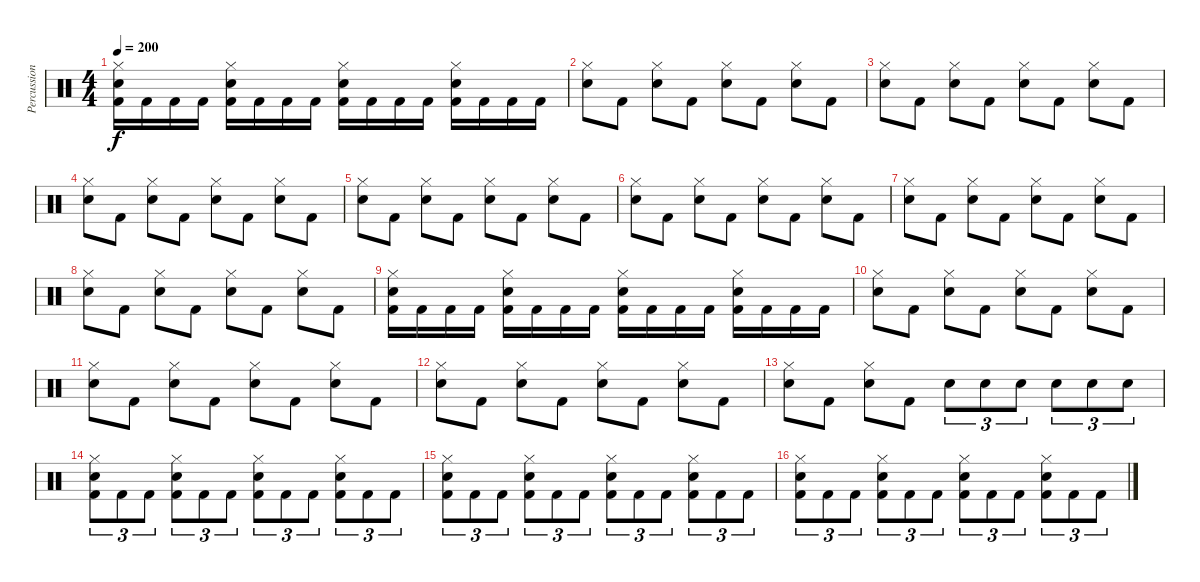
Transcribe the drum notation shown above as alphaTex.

\track ("Percussion" "Percussion") {instrument percussion}
\staff {score}
\articulation defaults
\ts (4 4)
\tempo 200
\clef neutral
\ks c
("Hi-Hat (closed)" "Snare (hit) 2" "Kick (hit) 2").16{dy f} "Kick (hit) 2".16 "Kick (hit) 2".16 "Kick (hit) 2".16 ("Hi-Hat (closed)" "Snare (hit) 2" "Kick (hit) 2").16 "Kick (hit) 2".16 "Kick (hit) 2".16 "Kick (hit) 2".16 ("Hi-Hat (closed)" "Snare (hit) 2" "Kick (hit) 2").16 "Kick (hit) 2".16 "Kick (hit) 2".16 "Kick (hit) 2".16 ("Hi-Hat (closed)" "Snare (hit) 2" "Kick (hit) 2").16 "Kick (hit) 2".16 "Kick (hit) 2".16 "Kick (hit) 2".16 |
("Hi-Hat (closed)" "Snare (hit) 2").8 "Kick (hit) 2".8 ("Hi-Hat (closed)" "Snare (hit) 2").8 "Kick (hit) 2".8 ("Hi-Hat (closed)" "Snare (hit) 2").8 "Kick (hit) 2".8 ("Hi-Hat (closed)" "Snare (hit) 2").8 "Kick (hit) 2".8 |
("Hi-Hat (closed)" "Snare (hit) 2").8 "Kick (hit) 2".8 ("Hi-Hat (closed)" "Snare (hit) 2").8 "Kick (hit) 2".8 ("Hi-Hat (closed)" "Snare (hit) 2").8 "Kick (hit) 2".8 ("Hi-Hat (closed)" "Snare (hit) 2").8 "Kick (hit) 2".8 |
("Hi-Hat (closed)" "Snare (hit) 2").8 "Kick (hit) 2".8 ("Hi-Hat (closed)" "Snare (hit) 2").8 "Kick (hit) 2".8 ("Hi-Hat (closed)" "Snare (hit) 2").8 "Kick (hit) 2".8 ("Hi-Hat (closed)" "Snare (hit) 2").8 "Kick (hit) 2".8 |
("Hi-Hat (closed)" "Snare (hit) 2").8 "Kick (hit) 2".8 ("Hi-Hat (closed)" "Snare (hit) 2").8 "Kick (hit) 2".8 ("Hi-Hat (closed)" "Snare (hit) 2").8 "Kick (hit) 2".8 ("Hi-Hat (closed)" "Snare (hit) 2").8 "Kick (hit) 2".8 |
("Hi-Hat (closed)" "Snare (hit) 2").8 "Kick (hit) 2".8 ("Hi-Hat (closed)" "Snare (hit) 2").8 "Kick (hit) 2".8 ("Hi-Hat (closed)" "Snare (hit) 2").8 "Kick (hit) 2".8 ("Hi-Hat (closed)" "Snare (hit) 2").8 "Kick (hit) 2".8 |
("Hi-Hat (closed)" "Snare (hit) 2").8 "Kick (hit) 2".8 ("Hi-Hat (closed)" "Snare (hit) 2").8 "Kick (hit) 2".8 ("Hi-Hat (closed)" "Snare (hit) 2").8 "Kick (hit) 2".8 ("Hi-Hat (closed)" "Snare (hit) 2").8 "Kick (hit) 2".8 |
("Hi-Hat (closed)" "Snare (hit) 2").8 "Kick (hit) 2".8 ("Hi-Hat (closed)" "Snare (hit) 2").8 "Kick (hit) 2".8 ("Hi-Hat (closed)" "Snare (hit) 2").8 "Kick (hit) 2".8 ("Hi-Hat (closed)" "Snare (hit) 2").8 "Kick (hit) 2".8 |
("Hi-Hat (closed)" "Snare (hit) 2" "Kick (hit) 2").16 "Kick (hit) 2".16 "Kick (hit) 2".16 "Kick (hit) 2".16 ("Hi-Hat (closed)" "Snare (hit) 2" "Kick (hit) 2").16 "Kick (hit) 2".16 "Kick (hit) 2".16 "Kick (hit) 2".16 ("Hi-Hat (closed)" "Snare (hit) 2" "Kick (hit) 2").16 "Kick (hit) 2".16 "Kick (hit) 2".16 "Kick (hit) 2".16 ("Hi-Hat (closed)" "Snare (hit) 2" "Kick (hit) 2").16 "Kick (hit) 2".16 "Kick (hit) 2".16 "Kick (hit) 2".16 |
("Hi-Hat (closed)" "Snare (hit) 2").8 "Kick (hit) 2".8 ("Hi-Hat (closed)" "Snare (hit) 2").8 "Kick (hit) 2".8 ("Hi-Hat (closed)" "Snare (hit) 2").8 "Kick (hit) 2".8 ("Hi-Hat (closed)" "Snare (hit) 2").8 "Kick (hit) 2".8 |
("Hi-Hat (closed)" "Snare (hit) 2").8 "Kick (hit) 2".8 ("Hi-Hat (closed)" "Snare (hit) 2").8 "Kick (hit) 2".8 ("Hi-Hat (closed)" "Snare (hit) 2").8 "Kick (hit) 2".8 ("Hi-Hat (closed)" "Snare (hit) 2").8 "Kick (hit) 2".8 |
("Hi-Hat (closed)" "Snare (hit) 2").8 "Kick (hit) 2".8 ("Hi-Hat (closed)" "Snare (hit) 2").8 "Kick (hit) 2".8 ("Hi-Hat (closed)" "Snare (hit) 2").8 "Kick (hit) 2".8 ("Hi-Hat (closed)" "Snare (hit) 2").8 "Kick (hit) 2".8 |
("Hi-Hat (closed)" "Snare (hit) 2").8 "Kick (hit) 2".8 ("Hi-Hat (closed)" "Snare (hit) 2").8 "Kick (hit) 2".8 "Snare (hit) 2".8{tu (3 2)} "Snare (hit) 2".8{tu (3 2)} "Snare (hit) 2".8{tu (3 2)} "Snare (hit) 2".8{tu (3 2)} "Snare (hit) 2".8{tu (3 2)} "Snare (hit) 2".8{tu (3 2)} |
("Hi-Hat (closed)" "Snare (hit) 2" "Kick (hit) 2").8{tu (3 2)} "Kick (hit) 2".8{tu (3 2)} "Kick (hit) 2".8{tu (3 2)} ("Hi-Hat (closed)" "Snare (hit) 2" "Kick (hit) 2").8{tu (3 2)} "Kick (hit) 2".8{tu (3 2)} "Kick (hit) 2".8{tu (3 2)} ("Hi-Hat (closed)" "Snare (hit) 2" "Kick (hit) 2").8{tu (3 2)} "Kick (hit) 2".8{tu (3 2)} "Kick (hit) 2".8{tu (3 2)} ("Hi-Hat (closed)" "Snare (hit) 2" "Kick (hit) 2").8{tu (3 2)} "Kick (hit) 2".8{tu (3 2)} "Kick (hit) 2".8{tu (3 2)} |
("Hi-Hat (closed)" "Snare (hit) 2" "Kick (hit) 2").8{tu (3 2)} "Kick (hit) 2".8{tu (3 2)} "Kick (hit) 2".8{tu (3 2)} ("Hi-Hat (closed)" "Snare (hit) 2" "Kick (hit) 2").8{tu (3 2)} "Kick (hit) 2".8{tu (3 2)} "Kick (hit) 2".8{tu (3 2)} ("Hi-Hat (closed)" "Snare (hit) 2" "Kick (hit) 2").8{tu (3 2)} "Kick (hit) 2".8{tu (3 2)} "Kick (hit) 2".8{tu (3 2)} ("Hi-Hat (closed)" "Snare (hit) 2" "Kick (hit) 2").8{tu (3 2)} "Kick (hit) 2".8{tu (3 2)} "Kick (hit) 2".8{tu (3 2)} |
("Hi-Hat (closed)" "Snare (hit) 2" "Kick (hit) 2").8{tu (3 2)} "Kick (hit) 2".8{tu (3 2)} "Kick (hit) 2".8{tu (3 2)} ("Hi-Hat (closed)" "Snare (hit) 2" "Kick (hit) 2").8{tu (3 2)} "Kick (hit) 2".8{tu (3 2)} "Kick (hit) 2".8{tu (3 2)} ("Hi-Hat (closed)" "Snare (hit) 2" "Kick (hit) 2").8{tu (3 2)} "Kick (hit) 2".8{tu (3 2)} "Kick (hit) 2".8{tu (3 2)} ("Hi-Hat (closed)" "Snare (hit) 2" "Kick (hit) 2").8{tu (3 2)} "Kick (hit) 2".8{tu (3 2)} "Kick (hit) 2".8{tu (3 2)}
